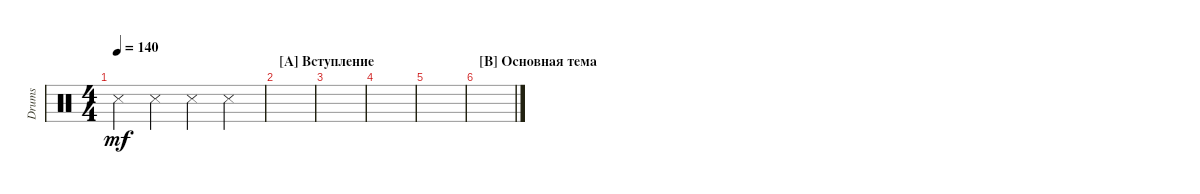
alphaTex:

\track ("Drumkit" "Drums") {instrument percussion}
\staff {score}
\articulation defaults
\ts (4 4)
\tempo 140
\clef neutral
\ks c "Snare (side stick) 3".4{dy mf} "Snare (side stick) 3".4 "Snare (side stick) 3".4 "Snare (side stick) 3".4
|
\section ("A" "Вступление")
|
|
|
|
\section ("B" "Основная тема")
